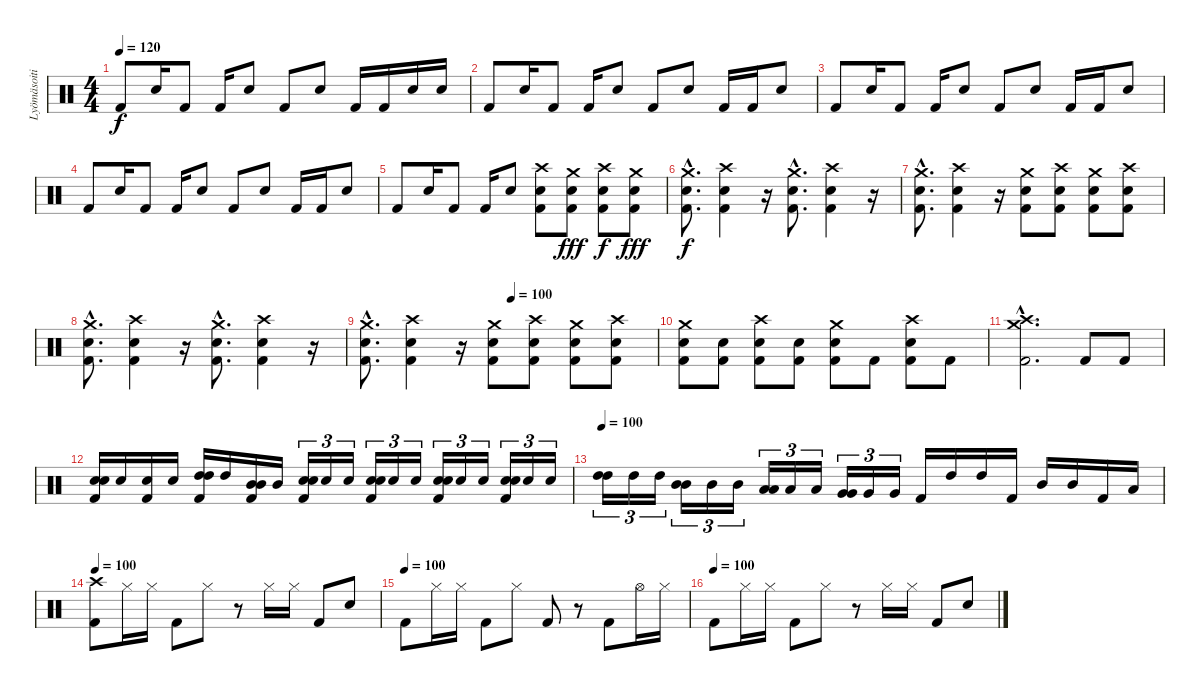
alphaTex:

\track ("Lyömäsoitin" "Lyömäsoiti") {instrument percussion}
\staff {score}
\articulation defaults
\ts (4 4)
\tempo 120
\clef neutral
\ks c "Kick (hit) 2".8{dy f} "Electric Snare (hit)".16 "Kick (hit) 2".8 "Kick (hit) 2".16 "Electric Snare (hit)".8 "Kick (hit) 2".8 "Electric Snare (hit)".8 "Kick (hit) 2".16 "Kick (hit) 2".16 "Electric Snare (hit)".16 "Electric Snare (hit)".16
|
"Kick (hit) 2".8 "Electric Snare (hit)".16 "Kick (hit) 2".8 "Kick (hit) 2".16 "Electric Snare (hit)".8 "Kick (hit) 2".8 "Electric Snare (hit)".8 "Kick (hit) 2".16 "Kick (hit) 2".16 "Electric Snare (hit)".8 |
"Kick (hit) 2".8 "Electric Snare (hit)".16 "Kick (hit) 2".8 "Kick (hit) 2".16 "Electric Snare (hit)".8 "Kick (hit) 2".8 "Electric Snare (hit)".8 "Kick (hit) 2".16 "Kick (hit) 2".16 "Electric Snare (hit)".8 |
"Kick (hit) 2".8 "Electric Snare (hit)".16 "Kick (hit) 2".8 "Kick (hit) 2".16 "Electric Snare (hit)".8 "Kick (hit) 2".8 "Electric Snare (hit)".8 "Kick (hit) 2".16 "Kick (hit) 2".16 "Electric Snare (hit)".8 |
"Kick (hit) 2".8 "Electric Snare (hit)".16 "Kick (hit) 2".8 "Kick (hit) 2".16 "Electric Snare (hit)".8 ("Crash high (hit)" "Electric Snare (hit)" "Kick (hit) 2").8 ("Crash medium (hit)" "Electric Snare (hit)" "Kick (hit) 2").8{dy fff} ("Crash high (hit)" "Electric Snare (hit)" "Kick (hit) 2").8{dy f} ("Crash medium (hit)" "Electric Snare (hit)" "Kick (hit) 2").8{dy fff} |
("Crash medium (hit)"{hac} "Electric Snare (hit)"{hac} "Kick (hit) 2"{hac}).8{d dy f} ("Crash high (hit)" "Electric Snare (hit)" "Kick (hit) 2").4 r.16 ("Crash medium (hit)"{hac} "Electric Snare (hit)"{hac} "Kick (hit) 2"{hac}).8{d} ("Crash high (hit)" "Electric Snare (hit)" "Kick (hit) 2").4 r.16 |
("Crash medium (hit)"{hac} "Electric Snare (hit)"{hac} "Kick (hit) 2"{hac}).8{d} ("Crash high (hit)" "Electric Snare (hit)" "Kick (hit) 2").4 r.16 ("Crash medium (hit)" "Electric Snare (hit)" "Kick (hit) 2").8 ("Crash high (hit)" "Electric Snare (hit)" "Kick (hit) 2").8 ("Crash medium (hit)" "Electric Snare (hit)" "Kick (hit) 2").8 ("Crash high (hit)" "Electric Snare (hit)" "Kick (hit) 2").8 |
("Crash medium (hit)"{hac} "Electric Snare (hit)"{hac} "Kick (hit) 2"{hac}).8{d} ("Crash high (hit)" "Electric Snare (hit)" "Kick (hit) 2").4 r.16 ("Crash medium (hit)"{hac} "Electric Snare (hit)"{hac} "Kick (hit) 2"{hac}).8{d} ("Crash high (hit)" "Electric Snare (hit)" "Kick (hit) 2").4 r.16 |
\tempo (100 0.5)
("Crash medium (hit)"{hac} "Electric Snare (hit)"{hac} "Kick (hit) 2"{hac}).8{d} ("Crash high (hit)" "Electric Snare (hit)" "Kick (hit) 2").4 r.16 ("Crash medium (hit)" "Electric Snare (hit)" "Kick (hit) 2").8 ("Crash high (hit)" "Electric Snare (hit)" "Kick (hit) 2").8 ("Crash medium (hit)" "Electric Snare (hit)" "Kick (hit) 2").8 ("Crash high (hit)" "Electric Snare (hit)" "Kick (hit) 2").8 |
("Crash medium (hit)" "Electric Snare (hit)" "Kick (hit) 2").8 ("Electric Snare (hit)" "Kick (hit) 2").8 ("Crash high (hit)" "Electric Snare (hit)" "Kick (hit) 2").8 ("Electric Snare (hit)" "Kick (hit) 2").8 ("Crash medium (hit)" "Electric Snare (hit)" "Kick (hit) 2").8 "Kick (hit) 2".8 ("Crash high (hit)" "Electric Snare (hit)" "Kick (hit) 2").8 "Kick (hit) 2".8 |
("Crash high (hit)"{hac} "Crash medium (hit)"{hac} "Kick (hit) 2"{hac}).2{d} "Kick (hit) 2".8 "Kick (hit) 2".8 |
("Electric Snare (hit)" "Electric Snare (hit)" "Kick (hit) 2").16 "Electric Snare (hit)".16 ("Electric Snare (hit)" "Kick (hit) 2").16 "Electric Snare (hit)".16 ("High Tom (hit)" "High Tom (hit)" "Kick (hit) 2").16 "High Tom (hit)".16 ("Mid Tom (hit)" "Mid Tom (hit)" "Kick (hit) 2").16 "Mid Tom (hit)".16 ("Electric Snare (hit)" "Electric Snare (hit)" "Kick (hit) 2").16{tu (3 2)} "Electric Snare (hit)".16{tu (3 2)} "Electric Snare (hit)".16{tu (3 2)} ("Electric Snare (hit)" "Electric Snare (hit)" "Kick (hit) 2").16{tu (3 2)} "Electric Snare (hit)".16{tu (3 2)} "Electric Snare (hit)".16{tu (3 2)} ("Electric Snare (hit)" "Electric Snare (hit)" "Kick (hit) 2").16{tu (3 2)} "Electric Snare (hit)".16{tu (3 2)} "Electric Snare (hit)".16{tu (3 2)} ("Electric Snare (hit)" "Electric Snare (hit)" "Kick (hit) 2").16{tu (3 2)} "Electric Snare (hit)".16{tu (3 2)} "Electric Snare (hit)".16{tu (3 2)} |
\tempo 100
("High Tom (hit)" "High Tom (hit)").16{tu (3 2)} "High Tom (hit)".16{tu (3 2)} "High Tom (hit)".16{tu (3 2)} ("Mid Tom (hit)" "Mid Tom (hit)").16{tu (3 2)} "Mid Tom (hit)".16{tu (3 2)} "Mid Tom (hit)".16{tu (3 2)} ("Low Tom (hit)" "Low Tom (hit)").16{tu (3 2)} "Low Tom (hit)".16{tu (3 2)} "Low Tom (hit)".16{tu (3 2)} ("Very Low Tom (hit)" "Very Low Tom (hit)").16{tu (3 2)} "Very Low Tom (hit)".16{tu (3 2)} "Very Low Tom (hit)".16{tu (3 2)} "Kick (hit) 2".16 "High Tom (hit)".16 "High Tom (hit)".16 "Kick (hit) 2".16 "Mid Tom (hit)".16 "Mid Tom (hit)".16 "Kick (hit) 2".16 "Low Tom (hit)".16 |
\tempo 100
("Crash high (hit)" "Kick (hit) 2").8 "Hi-Hat (closed)".16 "Hi-Hat (closed)".16 "Kick (hit) 2".8 "Hi-Hat (closed)".8 r.8 "Hi-Hat (closed)".16 "Hi-Hat (closed)".16 "Kick (hit) 2".8 "Electric Snare (hit)".8 |
\tempo (100)
"Kick (hit) 2".8 "Hi-Hat (closed)".16 "Hi-Hat (closed)".16 "Kick (hit) 2".8 "Hi-Hat (closed)".8 "Kick (hit) 2".8 r.8 "Kick (hit) 2".8 "Hi-Hat (open)".16 "Hi-Hat (closed)".16 |
\tempo (100)
"Kick (hit) 2".8 "Hi-Hat (closed)".16 "Hi-Hat (closed)".16 "Kick (hit) 2".8 "Hi-Hat (closed)".8 r.8 "Hi-Hat (closed)".16 "Hi-Hat (closed)".16 "Kick (hit) 2".8 "Electric Snare (hit)".8
